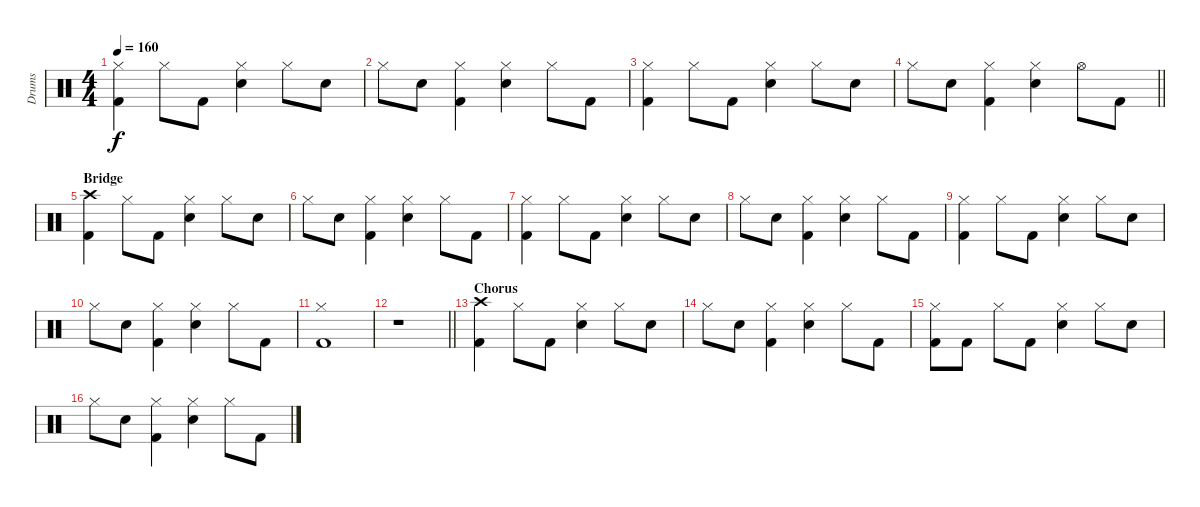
\track ("Drums" "Drums") {instrument percussion}
\staff {score}
\articulation defaults
\ts (4 4)
\tempo 160
\clef neutral
\ks c
("Hi-Hat (closed)" "Kick (hit) 2").4{dy f} "Hi-Hat (closed)".8 "Kick (hit) 2".8 ("Hi-Hat (closed)" "Snare (hit) 2").4 "Hi-Hat (closed)".8 "Snare (hit) 2".8 |
"Hi-Hat (closed)".8 "Snare (hit) 2".8 ("Hi-Hat (closed)" "Kick (hit) 2").4 ("Hi-Hat (closed)" "Snare (hit) 2").4 "Hi-Hat (closed)".8 "Kick (hit) 2".8 |
("Hi-Hat (closed)" "Kick (hit) 2").4 "Hi-Hat (closed)".8 "Kick (hit) 2".8 ("Hi-Hat (closed)" "Snare (hit) 2").4 "Hi-Hat (closed)".8 "Snare (hit) 2".8 |
\barLineRight lightlight "Hi-Hat (closed)".8 "Snare (hit) 2".8
("Hi-Hat (closed)" "Kick (hit) 2").4 ("Hi-Hat (closed)" "Snare (hit) 2").4 "Hi-Hat (open)".8 "Kick (hit) 2".8 |
\section ("" "Bridge")
("Crash high (hit)" "Kick (hit) 2").4 "Hi-Hat (closed)".8 "Kick (hit) 2".8 ("Hi-Hat (closed)" "Snare (hit) 2").4 "Hi-Hat (closed)".8 "Snare (hit) 2".8 |
"Hi-Hat (closed)".8 "Snare (hit) 2".8 ("Hi-Hat (closed)" "Kick (hit) 2").4 ("Hi-Hat (closed)" "Snare (hit) 2").4 "Hi-Hat (closed)".8 "Kick (hit) 2".8 |
("Hi-Hat (closed)" "Kick (hit) 2").4 "Hi-Hat (closed)".8 "Kick (hit) 2".8 ("Hi-Hat (closed)" "Snare (hit) 2").4 "Hi-Hat (closed)".8 "Snare (hit) 2".8 |
"Hi-Hat (closed)".8 "Snare (hit) 2".8 ("Hi-Hat (closed)" "Kick (hit) 2").4 ("Hi-Hat (closed)" "Snare (hit) 2").4 "Hi-Hat (closed)".8 "Kick (hit) 2".8 |
("Hi-Hat (closed)" "Kick (hit) 2").4 "Hi-Hat (closed)".8 "Kick (hit) 2".8 ("Hi-Hat (closed)" "Snare (hit) 2").4 "Hi-Hat (closed)".8 "Snare (hit) 2".8 |
"Hi-Hat (closed)".8 "Snare (hit) 2".8 ("Hi-Hat (closed)" "Kick (hit) 2").4 ("Hi-Hat (closed)" "Snare (hit) 2").4 "Hi-Hat (closed)".8 "Kick (hit) 2".8 |
("Hi-Hat (closed)" "Kick (hit) 2").1 |
\barLineRight lightlight
r.1 |
\section ("" "Chorus")
("Crash high (hit)" "Kick (hit) 2").4 "Hi-Hat (closed)".8 "Kick (hit) 2".8 ("Hi-Hat (closed)" "Snare (hit) 2").4 "Hi-Hat (closed)".8 "Snare (hit) 2".8 |
"Hi-Hat (closed)".8 "Snare (hit) 2".8 ("Hi-Hat (closed)" "Kick (hit) 2").4 ("Hi-Hat (closed)" "Snare (hit) 2").4 "Hi-Hat (closed)".8 "Kick (hit) 2".8 |
("Hi-Hat (closed)" "Kick (hit) 2").8 "Kick (hit) 2".8 "Hi-Hat (closed)".8 "Kick (hit) 2".8 ("Hi-Hat (closed)" "Snare (hit) 2").4 "Hi-Hat (closed)".8 "Snare (hit) 2".8 |
"Hi-Hat (closed)".8 "Snare (hit) 2".8 ("Hi-Hat (closed)" "Kick (hit) 2").4 ("Hi-Hat (closed)" "Snare (hit) 2").4 "Hi-Hat (closed)".8 "Kick (hit) 2".8
